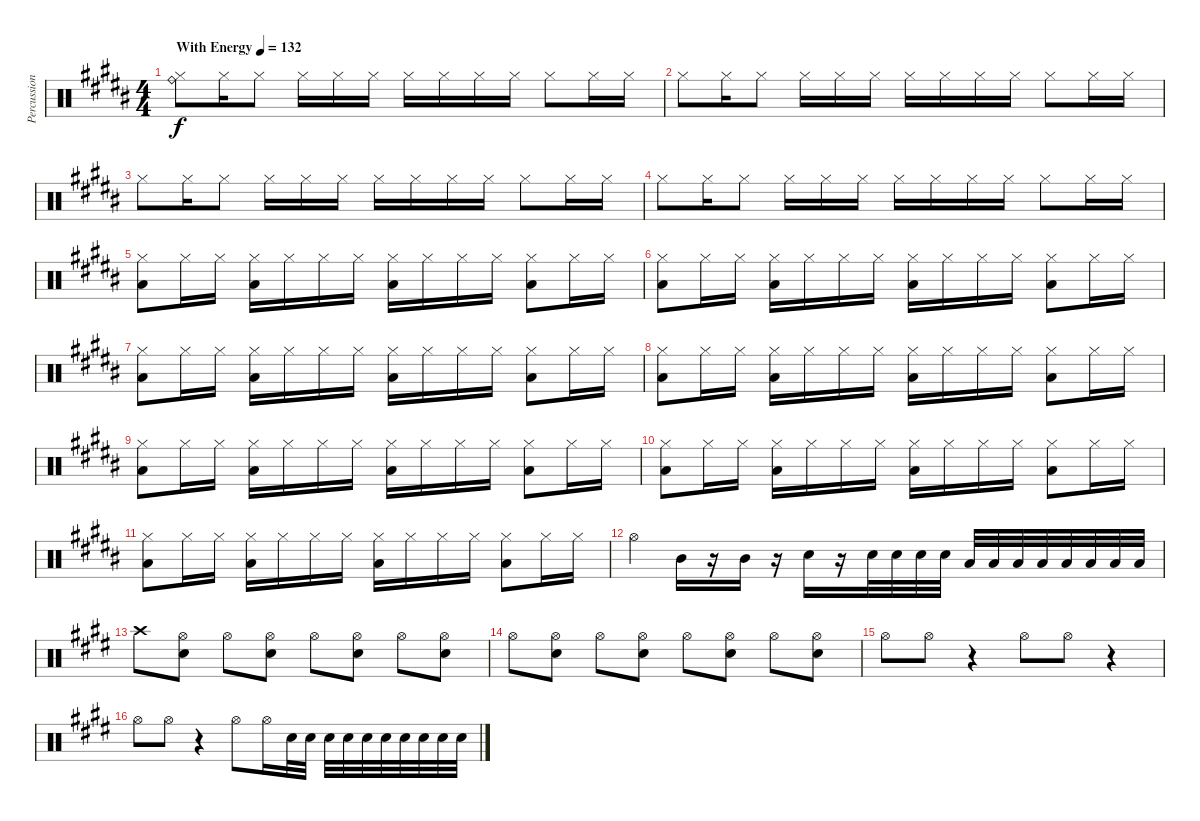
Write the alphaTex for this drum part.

\track ("Percussion (Gelnn Porter)" "Percussion") {instrument percussion}
\staff {score}
\articulation defaults
\ts (4 4)
\tempo (132 "With Energy")
\clef neutral
\ks b
("Ride (bell)" "Hi-Hat (closed)").8{dy f} "Hi-Hat (closed)".16 "Hi-Hat (closed)".8 "Hi-Hat (closed)".16 "Hi-Hat (closed)".16 "Hi-Hat (closed)".16 "Hi-Hat (closed)".16 "Hi-Hat (closed)".16 "Hi-Hat (closed)".16 "Hi-Hat (closed)".16 "Hi-Hat (closed)".8 "Hi-Hat (closed)".16 "Hi-Hat (closed)".16 |
"Hi-Hat (closed)".8 "Hi-Hat (closed)".16 "Hi-Hat (closed)".8 "Hi-Hat (closed)".16 "Hi-Hat (closed)".16 "Hi-Hat (closed)".16 "Hi-Hat (closed)".16 "Hi-Hat (closed)".16 "Hi-Hat (closed)".16 "Hi-Hat (closed)".16 "Hi-Hat (closed)".8 "Hi-Hat (closed)".16 "Hi-Hat (closed)".16 |
"Hi-Hat (closed)".8 "Hi-Hat (closed)".16 "Hi-Hat (closed)".8 "Hi-Hat (closed)".16 "Hi-Hat (closed)".16 "Hi-Hat (closed)".16 "Hi-Hat (closed)".16 "Hi-Hat (closed)".16 "Hi-Hat (closed)".16 "Hi-Hat (closed)".16 "Hi-Hat (closed)".8 "Hi-Hat (closed)".16 "Hi-Hat (closed)".16 |
"Hi-Hat (closed)".8 "Hi-Hat (closed)".16 "Hi-Hat (closed)".8 "Hi-Hat (closed)".16 "Hi-Hat (closed)".16 "Hi-Hat (closed)".16 "Hi-Hat (closed)".16 "Hi-Hat (closed)".16 "Hi-Hat (closed)".16 "Hi-Hat (closed)".16 "Hi-Hat (closed)".8 "Hi-Hat (closed)".16 "Hi-Hat (closed)".16 |
("Hi-Hat (closed)" "Low Floor Tom (hit)").8 "Hi-Hat (closed)".16 "Hi-Hat (closed)".16 ("Hi-Hat (closed)" "Low Floor Tom (hit)").16 "Hi-Hat (closed)".16 "Hi-Hat (closed)".16 "Hi-Hat (closed)".16 ("Hi-Hat (closed)" "Low Floor Tom (hit)").16 "Hi-Hat (closed)".16 "Hi-Hat (closed)".16 "Hi-Hat (closed)".16 ("Hi-Hat (closed)" "Low Floor Tom (hit)").8 "Hi-Hat (closed)".16 "Hi-Hat (closed)".16 |
("Hi-Hat (closed)" "Low Floor Tom (hit)").8 "Hi-Hat (closed)".16 "Hi-Hat (closed)".16 ("Hi-Hat (closed)" "Low Floor Tom (hit)").16 "Hi-Hat (closed)".16 "Hi-Hat (closed)".16 "Hi-Hat (closed)".16 ("Hi-Hat (closed)" "Low Floor Tom (hit)").16 "Hi-Hat (closed)".16 "Hi-Hat (closed)".16 "Hi-Hat (closed)".16 ("Hi-Hat (closed)" "Low Floor Tom (hit)").8 "Hi-Hat (closed)".16 "Hi-Hat (closed)".16 |
("Hi-Hat (closed)" "Low Floor Tom (hit)").8 "Hi-Hat (closed)".16 "Hi-Hat (closed)".16 ("Hi-Hat (closed)" "Low Floor Tom (hit)").16 "Hi-Hat (closed)".16 "Hi-Hat (closed)".16 "Hi-Hat (closed)".16 ("Hi-Hat (closed)" "Low Floor Tom (hit)").16 "Hi-Hat (closed)".16 "Hi-Hat (closed)".16 "Hi-Hat (closed)".16 ("Hi-Hat (closed)" "Low Floor Tom (hit)").8 "Hi-Hat (closed)".16 "Hi-Hat (closed)".16 |
("Hi-Hat (closed)" "Low Floor Tom (hit)").8 "Hi-Hat (closed)".16 "Hi-Hat (closed)".16 ("Hi-Hat (closed)" "Low Floor Tom (hit)").16 "Hi-Hat (closed)".16 "Hi-Hat (closed)".16 "Hi-Hat (closed)".16 ("Hi-Hat (closed)" "Low Floor Tom (hit)").16 "Hi-Hat (closed)".16 "Hi-Hat (closed)".16 "Hi-Hat (closed)".16 ("Hi-Hat (closed)" "Low Floor Tom (hit)").8 "Hi-Hat (closed)".16 "Hi-Hat (closed)".16 |
("Hi-Hat (closed)" "Low Floor Tom (hit)").8 "Hi-Hat (closed)".16 "Hi-Hat (closed)".16 ("Hi-Hat (closed)" "Low Floor Tom (hit)").16 "Hi-Hat (closed)".16 "Hi-Hat (closed)".16 "Hi-Hat (closed)".16 ("Hi-Hat (closed)" "Low Floor Tom (hit)").16 "Hi-Hat (closed)".16 "Hi-Hat (closed)".16 "Hi-Hat (closed)".16 ("Hi-Hat (closed)" "Low Floor Tom (hit)").8 "Hi-Hat (closed)".16 "Hi-Hat (closed)".16 |
("Hi-Hat (closed)" "Low Floor Tom (hit)").8 "Hi-Hat (closed)".16 "Hi-Hat (closed)".16 ("Hi-Hat (closed)" "Low Floor Tom (hit)").16 "Hi-Hat (closed)".16 "Hi-Hat (closed)".16 "Hi-Hat (closed)".16 ("Hi-Hat (closed)" "Low Floor Tom (hit)").16 "Hi-Hat (closed)".16 "Hi-Hat (closed)".16 "Hi-Hat (closed)".16 ("Hi-Hat (closed)" "Low Floor Tom (hit)").8 "Hi-Hat (closed)".16 "Hi-Hat (closed)".16 |
("Hi-Hat (closed)" "Low Floor Tom (hit)").8 "Hi-Hat (closed)".16 "Hi-Hat (closed)".16 ("Hi-Hat (closed)" "Low Floor Tom (hit)").16 "Hi-Hat (closed)".16 "Hi-Hat (closed)".16 "Hi-Hat (closed)".16 ("Hi-Hat (closed)" "Low Floor Tom (hit)").16 "Hi-Hat (closed)".16 "Hi-Hat (closed)".16 "Hi-Hat (closed)".16 ("Hi-Hat (closed)" "Low Floor Tom (hit)").8 "Hi-Hat (closed)".16 "Hi-Hat (closed)".16 |
"Hi-Hat (open)".4 "Mid Tom (hit)".16 r.16 "Mid Tom (hit)".16 r.16 "Snare (hit) 2".16 r.16 "Snare (hit) 2".32 "Snare (hit) 2".32 "Snare (hit) 2".32 "Snare (hit) 2".32 "Low Tom (hit)".32 "Low Tom (hit)".32 "Low Tom (hit)".32 "Low Tom (hit)".32 "Low Tom (hit)".32 "Low Tom (hit)".32 "Low Tom (hit)".32 "Low Tom (hit)".32 |
\ks c#minor "Crash high (hit)".8
("Hi-Hat (open)" "Snare (hit) 2").8 "Hi-Hat (open)".8 ("Hi-Hat (open)" "Snare (hit) 2").8 "Hi-Hat (open)".8 ("Hi-Hat (open)" "Snare (hit) 2").8 "Hi-Hat (open)".8 ("Hi-Hat (open)" "Snare (hit) 2").8 |
"Hi-Hat (open)".8 ("Hi-Hat (open)" "Snare (hit) 2").8 "Hi-Hat (open)".8 ("Hi-Hat (open)" "Snare (hit) 2").8 "Hi-Hat (open)".8 ("Hi-Hat (open)" "Snare (hit) 2").8 "Hi-Hat (open)".8 ("Hi-Hat (open)" "Snare (hit) 2").8 |
"Hi-Hat (open)".8 "Hi-Hat (open)".8 r.4 "Hi-Hat (open)".8 "Hi-Hat (open)".8 r.4 |
"Hi-Hat (open)".8 "Hi-Hat (open)".8 r.4 "Hi-Hat (open)".8 "Hi-Hat (open)".16 "Snare (hit) 2".32 "Snare (hit) 2".32 "Snare (hit) 2".32 "Snare (hit) 2".32 "Snare (hit) 2".32 "Snare (hit) 2".32 "Snare (hit) 2".32 "Snare (hit) 2".32 "Snare (hit) 2".32 "Snare (hit) 2".32
